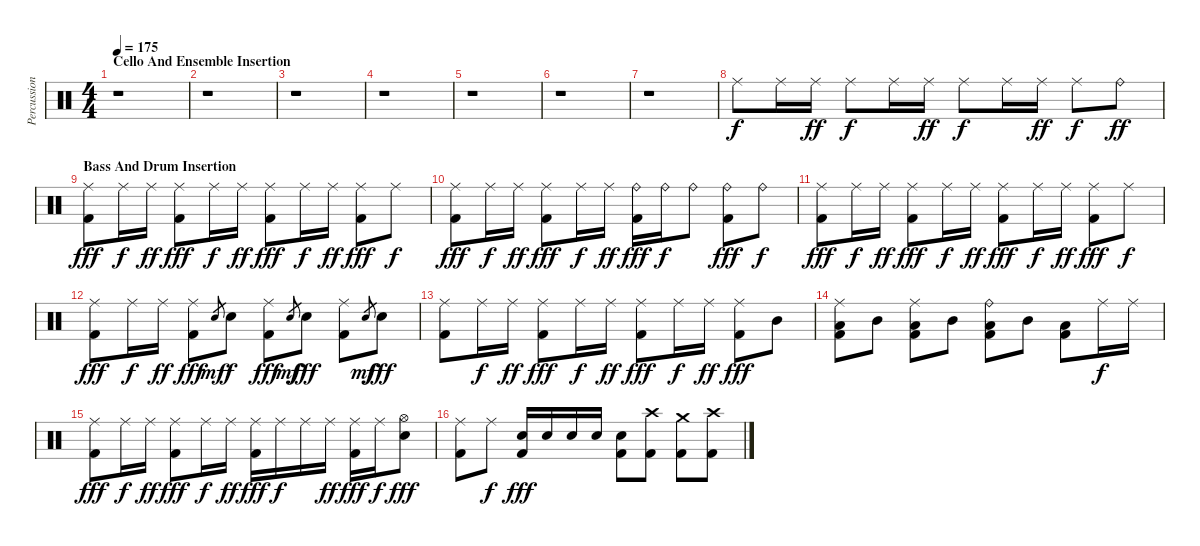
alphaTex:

\track ("Percussion" "Percussion") {instrument percussion}
\staff {score}
\articulation defaults
\ts (4 4)
\section ("" "Cello And Ensemble Insertion")
\tempo 175
\clef neutral
\ks c
r.1{dy f} |
r.1 |
r.1 |
r.1 |
r.1 |
r.1 |
r.1 |
"Ride (middle)".8 "Ride (middle)".16 "Ride (middle)".16{dy ff} "Ride (middle)".8{dy f} "Ride (middle)".16 "Ride (middle)".16{dy ff} "Ride (middle)".8{dy f} "Ride (middle)".16 "Ride (middle)".16{dy ff} "Ride (middle)".8{dy f} "Ride (bell)".8{dy ff} |
\section ("" "Bass And Drum Insertion")
("Ride (middle)" "Kick (hit) 2").8{dy fff} "Ride (middle)".16{dy f} "Ride (middle)".16{dy ff} ("Ride (middle)" "Kick (hit) 2").8{dy fff} "Ride (middle)".16{dy f} "Ride (middle)".16{dy ff} ("Ride (middle)" "Kick (hit) 2").8{dy fff} "Ride (middle)".16{dy f} "Ride (middle)".16{dy ff} ("Ride (middle)" "Kick (hit) 2").8{dy fff} "Ride (middle)".8{dy f} |
("Ride (middle)" "Kick (hit) 2").8{dy fff} "Ride (middle)".16{dy f} "Ride (middle)".16{dy ff} ("Ride (middle)" "Kick (hit) 2").8{dy fff} "Ride (middle)".16{dy f} "Ride (middle)".16{dy ff} ("Ride (bell)" "Kick (hit) 2").16{dy fff} "Ride (bell)".16{dy f} "Ride (bell)".8 ("Ride (bell)" "Kick (hit) 2").8{dy fff} "Ride (bell)".8{dy f} |
("Ride (middle)" "Kick (hit) 2").8{dy fff} "Ride (middle)".16{dy f} "Ride (middle)".16{dy ff} ("Ride (middle)" "Kick (hit) 2").8{dy fff} "Ride (middle)".16{dy f} "Ride (middle)".16{dy ff} ("Ride (middle)" "Kick (hit) 2").8{dy fff} "Ride (middle)".16{dy f} "Ride (middle)".16{dy ff} ("Ride (middle)" "Kick (hit) 2").8{dy fff} "Ride (middle)".8{dy f} |
("Ride (middle)" "Kick (hit) 2").8{dy fff} "Ride (middle)".16{dy f} "Ride (middle)".16{dy ff} ("Ride (middle)" "Kick (hit) 2").8{dy fff} "Snare (hit) 2".8{gr dy mf} "Snare (hit) 2".8{dy f} ("Ride (middle)" "Kick (hit) 2").8{dy fff} "Snare (hit) 2".8{gr dy mf} "Snare (hit) 2".8{dy fff} ("Ride (middle)" "Kick (hit) 2").8 "Snare (hit) 2".8{gr dy mf} "Snare (hit) 2".8{dy fff} |
("Ride (middle)" "Kick (hit) 2").8 "Ride (middle)".16{dy f} "Ride (middle)".16{dy ff} ("Ride (middle)" "Kick (hit) 2").8{dy fff} "Ride (middle)".16{dy f} "Ride (middle)".16{dy ff} ("Ride (middle)" "Kick (hit) 2").8{dy fff} "Ride (middle)".16{dy f} "Ride (middle)".16{dy ff} ("Ride (middle)" "Kick (hit) 2").8{dy fff} "Mid Tom (hit)".8 |
("Ride (middle)" "Low Tom (hit)" "Kick (hit) 2").8 "Mid Tom (hit)".8 ("Ride (middle)" "Low Tom (hit)" "Kick (hit) 2").8 "Mid Tom (hit)".8 ("Ride (bell)" "Low Tom (hit)" "Kick (hit) 2").8 "Mid Tom (hit)".8 ("Low Tom (hit)" "Kick (hit) 2").8 "Ride (middle)".16{dy f} "Ride (middle)".16 |
("Ride (middle)" "Kick (hit) 2").8{dy fff} "Ride (middle)".16{dy f} "Ride (middle)".16{dy ff} ("Ride (middle)" "Kick (hit) 2").8{dy fff} "Ride (middle)".16{dy f} "Ride (middle)".16{dy ff} ("Ride (middle)" "Kick (hit) 2").16{dy fff} "Ride (middle)".16{dy f} "Ride (middle)".16 "Ride (middle)".16{dy ff} ("Ride (middle)" "Kick (hit) 2").16{dy fff} "Ride (middle)".16{dy f} ("Hi-Hat (open)" "Snare (hit) 2").8{dy fff} |
("Ride (middle)" "Kick (hit) 2").8 "Ride (middle)".8{dy f} ("Snare (hit) 2" "Kick (hit) 2").16{dy fff} "Snare (hit) 2".16 "Snare (hit) 2".16 "Snare (hit) 2".16 ("Snare (hit) 2" "Kick (hit) 2").8 ("Crash high (hit)" "Kick (hit) 2").8 ("Crash medium (hit)" "Kick (hit) 2").8 ("Crash high (hit)" "Kick (hit) 2").8
